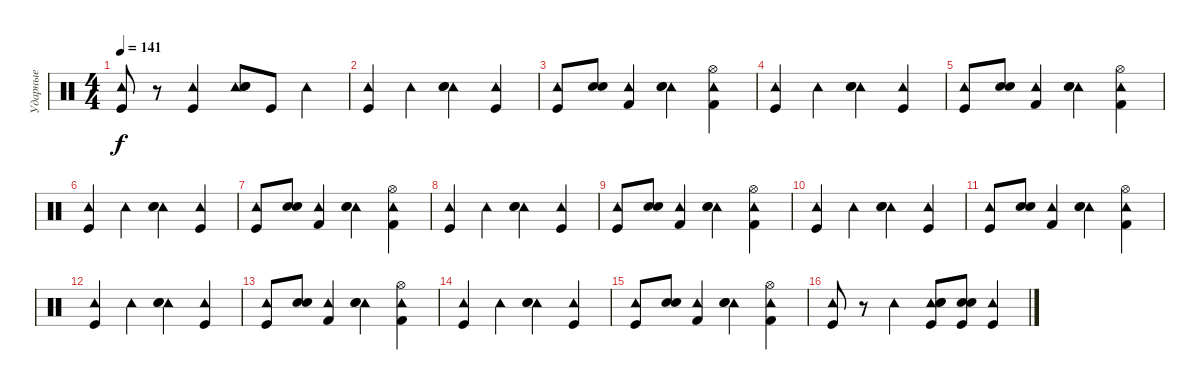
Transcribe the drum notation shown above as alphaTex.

\track ("Ударные" "Ударные") {instrument percussion}
\staff {score}
\articulation defaults
\ts (4 4)
\tempo 141
\clef neutral
\ks c
("Tambourine (hit)" "Kick (hit)").8{dy f} r.8 ("Tambourine (hit)" "Kick (hit)").4 ("Tambourine (hit)" "Snare (hit) 2" "Electric Snare (hit)").8 "Kick (hit)".8 "Tambourine (hit)".4 |
("Tambourine (hit)" "Kick (hit)").4 "Tambourine (hit)".4 ("Tambourine (hit)" "Snare (hit) 2" "Electric Snare (hit)").4 ("Tambourine (hit)" "Kick (hit)").4 |
("Tambourine (hit)" "Kick (hit)").8 ("Snare (hit) 2" "Electric Snare (hit)").8 ("Tambourine (hit)" "Kick (hit) 2").4 ("Tambourine (hit)" "Snare (hit) 2" "Electric Snare (hit)").4 ("Tambourine (hit)" "Hi-Hat (open)" "Kick (hit) 2").4 |
("Tambourine (hit)" "Kick (hit)").4 "Tambourine (hit)".4 ("Tambourine (hit)" "Snare (hit) 2" "Electric Snare (hit)").4 ("Tambourine (hit)" "Kick (hit)").4 |
("Tambourine (hit)" "Kick (hit)").8 ("Snare (hit) 2" "Electric Snare (hit)").8 ("Tambourine (hit)" "Kick (hit) 2").4 ("Tambourine (hit)" "Snare (hit) 2" "Electric Snare (hit)").4 ("Tambourine (hit)" "Hi-Hat (open)" "Kick (hit) 2").4 |
("Tambourine (hit)" "Kick (hit)").4 "Tambourine (hit)".4 ("Tambourine (hit)" "Snare (hit) 2" "Electric Snare (hit)").4 ("Tambourine (hit)" "Kick (hit)").4 |
("Tambourine (hit)" "Kick (hit)").8 ("Snare (hit) 2" "Electric Snare (hit)").8 ("Tambourine (hit)" "Kick (hit) 2").4 ("Tambourine (hit)" "Snare (hit) 2" "Electric Snare (hit)").4 ("Tambourine (hit)" "Hi-Hat (open)" "Kick (hit) 2").4 |
("Tambourine (hit)" "Kick (hit)").4 "Tambourine (hit)".4 ("Tambourine (hit)" "Snare (hit) 2" "Electric Snare (hit)").4 ("Tambourine (hit)" "Kick (hit)").4 |
("Tambourine (hit)" "Kick (hit)").8 ("Snare (hit) 2" "Electric Snare (hit)").8 ("Tambourine (hit)" "Kick (hit) 2").4 ("Tambourine (hit)" "Snare (hit) 2" "Electric Snare (hit)").4 ("Tambourine (hit)" "Hi-Hat (open)" "Kick (hit) 2").4 |
("Tambourine (hit)" "Kick (hit)").4 "Tambourine (hit)".4 ("Tambourine (hit)" "Snare (hit) 2" "Electric Snare (hit)").4 ("Tambourine (hit)" "Kick (hit)").4 |
("Tambourine (hit)" "Kick (hit)").8 ("Snare (hit) 2" "Electric Snare (hit)").8 ("Tambourine (hit)" "Kick (hit) 2").4 ("Tambourine (hit)" "Snare (hit) 2" "Electric Snare (hit)").4 ("Tambourine (hit)" "Hi-Hat (open)" "Kick (hit) 2").4 |
("Tambourine (hit)" "Kick (hit)").4 "Tambourine (hit)".4 ("Tambourine (hit)" "Snare (hit) 2" "Electric Snare (hit)").4 ("Tambourine (hit)" "Kick (hit)").4 |
("Tambourine (hit)" "Kick (hit)").8 ("Snare (hit) 2" "Electric Snare (hit)").8 ("Tambourine (hit)" "Kick (hit) 2").4 ("Tambourine (hit)" "Snare (hit) 2" "Electric Snare (hit)").4 ("Tambourine (hit)" "Hi-Hat (open)" "Kick (hit) 2").4 |
("Tambourine (hit)" "Kick (hit)").4 "Tambourine (hit)".4 ("Tambourine (hit)" "Snare (hit) 2" "Electric Snare (hit)").4 ("Tambourine (hit)" "Kick (hit)").4 |
("Tambourine (hit)" "Kick (hit)").8 ("Snare (hit) 2" "Electric Snare (hit)").8 ("Tambourine (hit)" "Kick (hit) 2").4 ("Tambourine (hit)" "Snare (hit) 2" "Electric Snare (hit)").4 ("Tambourine (hit)" "Hi-Hat (open)" "Kick (hit) 2").4 |
("Tambourine (hit)" "Kick (hit)").8 r.8 "Tambourine (hit)".4 ("Tambourine (hit)" "Snare (hit) 2" "Kick (hit)" "Electric Snare (hit)").8 ("Snare (hit) 2" "Kick (hit)" "Electric Snare (hit)").8 ("Tambourine (hit)" "Kick (hit)").4
